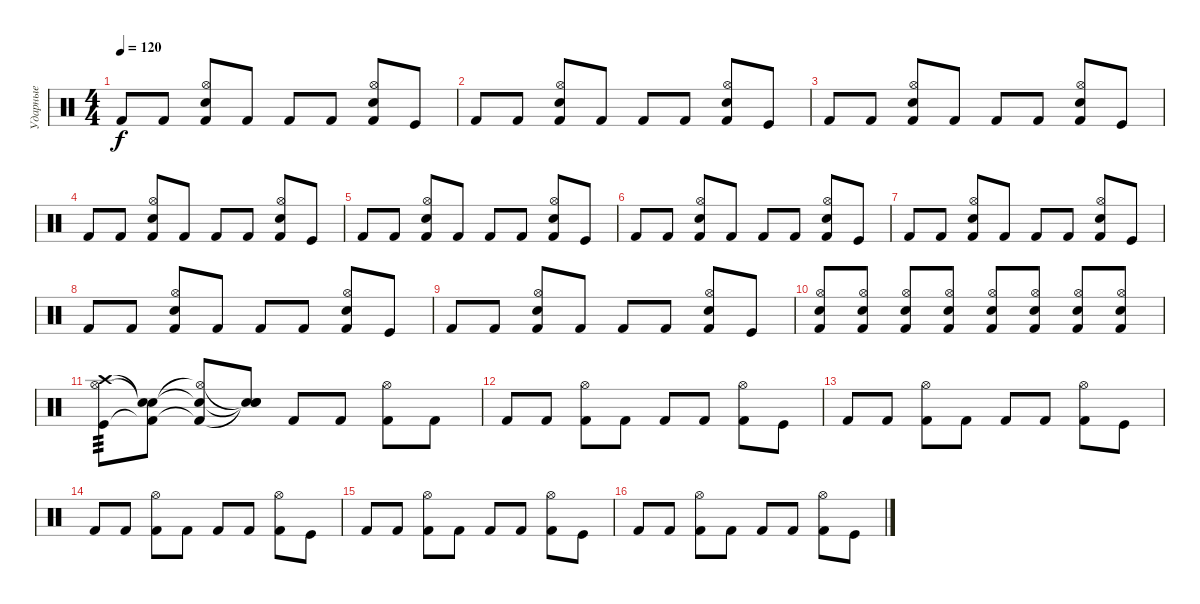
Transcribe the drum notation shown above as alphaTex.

\track ("Ударные" "Ударные") {instrument percussion}
\staff {score}
\articulation defaults
\ts (4 4)
\tempo 120
\clef neutral
\ks c "Kick (hit) 2".8{dy f} "Kick (hit) 2".8
("Kick (hit) 2" "Hi-Hat (open)" "Snare (hit) 2").8 "Kick (hit) 2".8 "Kick (hit) 2".8 "Kick (hit) 2".8 ("Kick (hit) 2" "Hi-Hat (open)" "Snare (hit) 2").8 "Kick (hit)".8 |
"Kick (hit) 2".8 "Kick (hit) 2".8 ("Kick (hit) 2" "Hi-Hat (open)" "Snare (hit) 2").8 "Kick (hit) 2".8 "Kick (hit) 2".8 "Kick (hit) 2".8 ("Kick (hit) 2" "Hi-Hat (open)" "Snare (hit) 2").8 "Kick (hit)".8 |
"Kick (hit) 2".8 "Kick (hit) 2".8 ("Kick (hit) 2" "Hi-Hat (open)" "Snare (hit) 2").8 "Kick (hit) 2".8 "Kick (hit) 2".8 "Kick (hit) 2".8 ("Kick (hit) 2" "Hi-Hat (open)" "Snare (hit) 2").8 "Kick (hit)".8 |
"Kick (hit) 2".8 "Kick (hit) 2".8 ("Kick (hit) 2" "Hi-Hat (open)" "Snare (hit) 2").8 "Kick (hit) 2".8 "Kick (hit) 2".8 "Kick (hit) 2".8 ("Kick (hit) 2" "Hi-Hat (open)" "Snare (hit) 2").8 "Kick (hit)".8 |
"Kick (hit) 2".8 "Kick (hit) 2".8 ("Kick (hit) 2" "Hi-Hat (open)" "Snare (hit) 2").8 "Kick (hit) 2".8 "Kick (hit) 2".8 "Kick (hit) 2".8 ("Kick (hit) 2" "Hi-Hat (open)" "Snare (hit) 2").8 "Kick (hit)".8 |
"Kick (hit) 2".8 "Kick (hit) 2".8 ("Kick (hit) 2" "Hi-Hat (open)" "Snare (hit) 2").8 "Kick (hit) 2".8 "Kick (hit) 2".8 "Kick (hit) 2".8 ("Kick (hit) 2" "Hi-Hat (open)" "Snare (hit) 2").8 "Kick (hit)".8 |
"Kick (hit) 2".8 "Kick (hit) 2".8 ("Kick (hit) 2" "Hi-Hat (open)" "Snare (hit) 2").8 "Kick (hit) 2".8 "Kick (hit) 2".8 "Kick (hit) 2".8 ("Kick (hit) 2" "Hi-Hat (open)" "Snare (hit) 2").8 "Kick (hit)".8 |
"Kick (hit) 2".8 "Kick (hit) 2".8 ("Kick (hit) 2" "Hi-Hat (open)" "Snare (hit) 2").8 "Kick (hit) 2".8 "Kick (hit) 2".8 "Kick (hit) 2".8 ("Kick (hit) 2" "Hi-Hat (open)" "Snare (hit) 2").8 "Kick (hit)".8 |
"Kick (hit) 2".8 "Kick (hit) 2".8 ("Kick (hit) 2" "Hi-Hat (open)" "Snare (hit) 2").8 "Kick (hit) 2".8 "Kick (hit) 2".8 "Kick (hit) 2".8 ("Kick (hit) 2" "Hi-Hat (open)" "Snare (hit) 2").8 "Kick (hit)".8 |
("Kick (hit) 2" "Hi-Hat (open)" "Snare (hit) 2").8 ("Kick (hit) 2" "Hi-Hat (open)" "Snare (hit) 2").8 ("Kick (hit) 2" "Hi-Hat (open)" "Snare (hit) 2").8 ("Kick (hit) 2" "Hi-Hat (open)" "Snare (hit) 2").8 ("Kick (hit) 2" "Hi-Hat (open)" "Snare (hit) 2").8 ("Kick (hit) 2" "Hi-Hat (open)" "Snare (hit) 2").8 ("Kick (hit) 2" "Hi-Hat (open)" "Snare (hit) 2").8 ("Kick (hit) 2" "Hi-Hat (open)" "Snare (hit) 2").8 |
("Kick (hit)" "Hi-Hat (open)" "Crash high (hit)").8{tp 3} ("Kick (hit) 2"{t} "Snare (hit)"{t} "Snare (hit)"{t}).8 ("Kick (hit) 2"{t} "Hi-Hat (open)"{t} "Snare (hit) 2"{t}).8 ("Snare (hit)"{t} "Snare (hit)"{t} "Snare (hit)"{t}).8 "Kick (hit) 2".8 "Kick (hit) 2".8 ("Kick (hit) 2" "Hi-Hat (open)").8 "Kick (hit) 2".8 |
"Kick (hit) 2".8 "Kick (hit) 2".8 ("Kick (hit) 2" "Hi-Hat (open)").8 "Kick (hit) 2".8 "Kick (hit) 2".8 "Kick (hit) 2".8 ("Kick (hit) 2" "Hi-Hat (open)").8 "Kick (hit)".8 |
"Kick (hit) 2".8 "Kick (hit) 2".8 ("Kick (hit) 2" "Hi-Hat (open)").8 "Kick (hit) 2".8 "Kick (hit) 2".8 "Kick (hit) 2".8 ("Kick (hit) 2" "Hi-Hat (open)").8 "Kick (hit)".8 |
"Kick (hit) 2".8 "Kick (hit) 2".8 ("Kick (hit) 2" "Hi-Hat (open)").8 "Kick (hit) 2".8 "Kick (hit) 2".8 "Kick (hit) 2".8 ("Kick (hit) 2" "Hi-Hat (open)").8 "Kick (hit)".8 |
"Kick (hit) 2".8 "Kick (hit) 2".8 ("Kick (hit) 2" "Hi-Hat (open)").8 "Kick (hit) 2".8 "Kick (hit) 2".8 "Kick (hit) 2".8 ("Kick (hit) 2" "Hi-Hat (open)").8 "Kick (hit)".8 |
"Kick (hit) 2".8 "Kick (hit) 2".8 ("Kick (hit) 2" "Hi-Hat (open)").8 "Kick (hit) 2".8 "Kick (hit) 2".8 "Kick (hit) 2".8 ("Kick (hit) 2" "Hi-Hat (open)").8 "Kick (hit)".8
